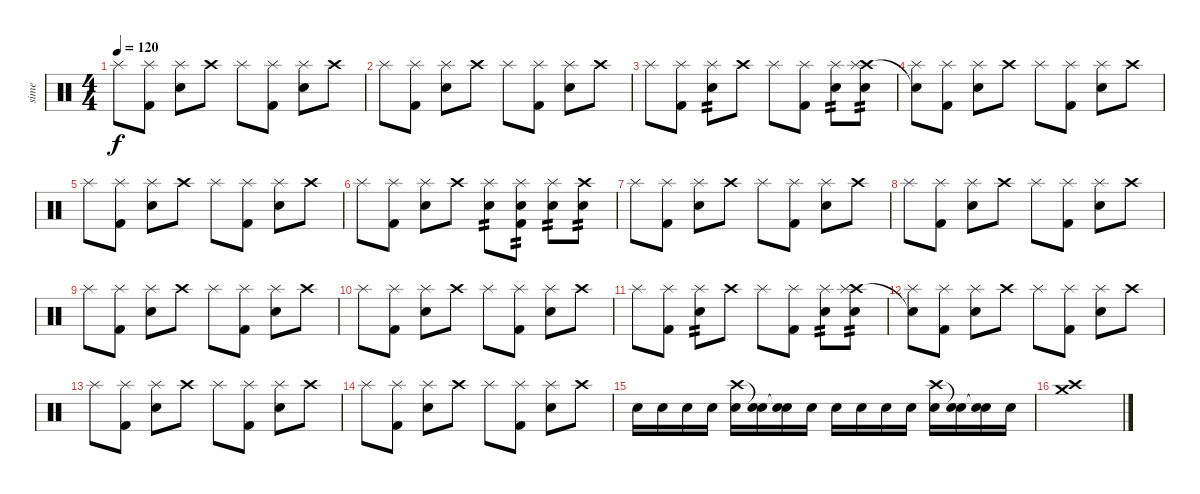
\track ("sime" "sime") {instrument percussion}
\staff {score}
\articulation defaults
\ts (4 4)
\tempo 120
\clef neutral
\ks c "Splash (hit)".8{dy f}
("Kick (hit) 2" "Splash (hit)").8 ("Snare (hit) 2" "Splash (hit)").8 "Crash high (hit)".8 "Splash (hit)".8 ("Kick (hit) 2" "Splash (hit)").8 ("Snare (hit) 2" "Splash (hit)").8 "Crash high (hit)".8 |
"Splash (hit)".8 ("Kick (hit) 2" "Splash (hit)").8 ("Snare (hit) 2" "Splash (hit)").8 "Crash high (hit)".8 "Splash (hit)".8 ("Kick (hit) 2" "Splash (hit)").8 ("Snare (hit) 2" "Splash (hit)").8 "Crash high (hit)".8 |
"Splash (hit)".8 ("Kick (hit) 2" "Splash (hit)").8 ("Snare (hit) 2" "Splash (hit)").8{tp 2} "Crash high (hit)".8 "Splash (hit)".8 ("Kick (hit) 2" "Splash (hit)").8 ("Snare (hit) 2" "Splash (hit)").8{tp 2} ("Snare (hit) 2" "Crash high (hit)" "Splash (hit)").8{tp 2} |
("Splash (hit)" "Snare (hit)"{t}).8 ("Kick (hit) 2" "Splash (hit)").8 ("Snare (hit) 2" "Splash (hit)").8 "Crash high (hit)".8 "Splash (hit)".8 ("Kick (hit) 2" "Splash (hit)").8 ("Snare (hit) 2" "Splash (hit)").8 "Crash high (hit)".8 |
"Splash (hit)".8 ("Kick (hit) 2" "Splash (hit)").8 ("Snare (hit) 2" "Splash (hit)").8 "Crash high (hit)".8 "Splash (hit)".8 ("Kick (hit) 2" "Splash (hit)").8 ("Snare (hit) 2" "Splash (hit)").8 "Crash high (hit)".8 |
"Splash (hit)".8 ("Kick (hit) 2" "Splash (hit)").8 ("Snare (hit) 2" "Splash (hit)").8 "Crash high (hit)".8 ("Splash (hit)" "Snare (hit) 2").8{tp 2} ("Kick (hit) 2" "Splash (hit)" "Snare (hit) 2").8{tp 2} ("Snare (hit) 2" "Splash (hit)").8{tp 2} ("Snare (hit) 2" "Crash high (hit)").8{tp 2} |
"Splash (hit)".8 ("Kick (hit) 2" "Splash (hit)").8 ("Snare (hit) 2" "Splash (hit)").8 "Crash high (hit)".8 "Splash (hit)".8 ("Kick (hit) 2" "Splash (hit)").8 ("Snare (hit) 2" "Splash (hit)").8 "Crash high (hit)".8 |
"Splash (hit)".8 ("Kick (hit) 2" "Splash (hit)").8 ("Snare (hit) 2" "Splash (hit)").8 "Crash high (hit)".8 "Splash (hit)".8 ("Kick (hit) 2" "Splash (hit)").8 ("Snare (hit) 2" "Splash (hit)").8 "Crash high (hit)".8 |
"Splash (hit)".8 ("Kick (hit) 2" "Splash (hit)").8 ("Snare (hit) 2" "Splash (hit)").8 "Crash high (hit)".8 "Splash (hit)".8 ("Kick (hit) 2" "Splash (hit)").8 ("Snare (hit) 2" "Splash (hit)").8 "Crash high (hit)".8 |
"Splash (hit)".8 ("Kick (hit) 2" "Splash (hit)").8 ("Snare (hit) 2" "Splash (hit)").8 "Crash high (hit)".8 "Splash (hit)".8 ("Kick (hit) 2" "Splash (hit)").8 ("Snare (hit) 2" "Splash (hit)").8 "Crash high (hit)".8 |
"Splash (hit)".8 ("Kick (hit) 2" "Splash (hit)").8 ("Snare (hit) 2" "Splash (hit)").8{tp 2} "Crash high (hit)".8 "Splash (hit)".8 ("Kick (hit) 2" "Splash (hit)").8 ("Snare (hit) 2" "Splash (hit)").8{tp 2} ("Snare (hit) 2" "Crash high (hit)" "Splash (hit)").8{tp 2} |
("Splash (hit)" "Snare (hit)"{t}).8 ("Kick (hit) 2" "Splash (hit)").8 ("Snare (hit) 2" "Splash (hit)").8 "Crash high (hit)".8 "Splash (hit)".8 ("Kick (hit) 2" "Splash (hit)").8 ("Snare (hit) 2" "Splash (hit)").8 "Crash high (hit)".8 |
"Splash (hit)".8 ("Kick (hit) 2" "Splash (hit)").8 ("Snare (hit) 2" "Splash (hit)").8 "Crash high (hit)".8 "Splash (hit)".8 ("Kick (hit) 2" "Splash (hit)").8 ("Snare (hit) 2" "Splash (hit)").8 "Crash high (hit)".8 |
"Splash (hit)".8 ("Kick (hit) 2" "Splash (hit)").8 ("Snare (hit) 2" "Splash (hit)").8 "Crash high (hit)".8 "Splash (hit)".8 ("Kick (hit) 2" "Splash (hit)").8 ("Snare (hit) 2" "Splash (hit)").8 "Crash high (hit)".8 |
"Snare (hit) 2".16 "Snare (hit) 2".16 "Snare (hit) 2".16 "Snare (hit) 2".16 ("Crash high (hit)" "Snare (hit) 2").16 ("Snare (hit)"{t} "Snare (hit) 2").16 ("Snare (hit)"{t} "Snare (hit) 2").16 "Snare (hit) 2".16 "Snare (hit) 2".16 "Snare (hit) 2".16 "Snare (hit) 2".16 "Snare (hit) 2".16 ("Crash high (hit)" "Snare (hit) 2").16 ("Snare (hit)"{t} "Snare (hit) 2").16 ("Snare (hit)"{t} "Snare (hit) 2").16 "Snare (hit) 2".16 |
("Crash medium (hit)" "Crash high (hit)").1
